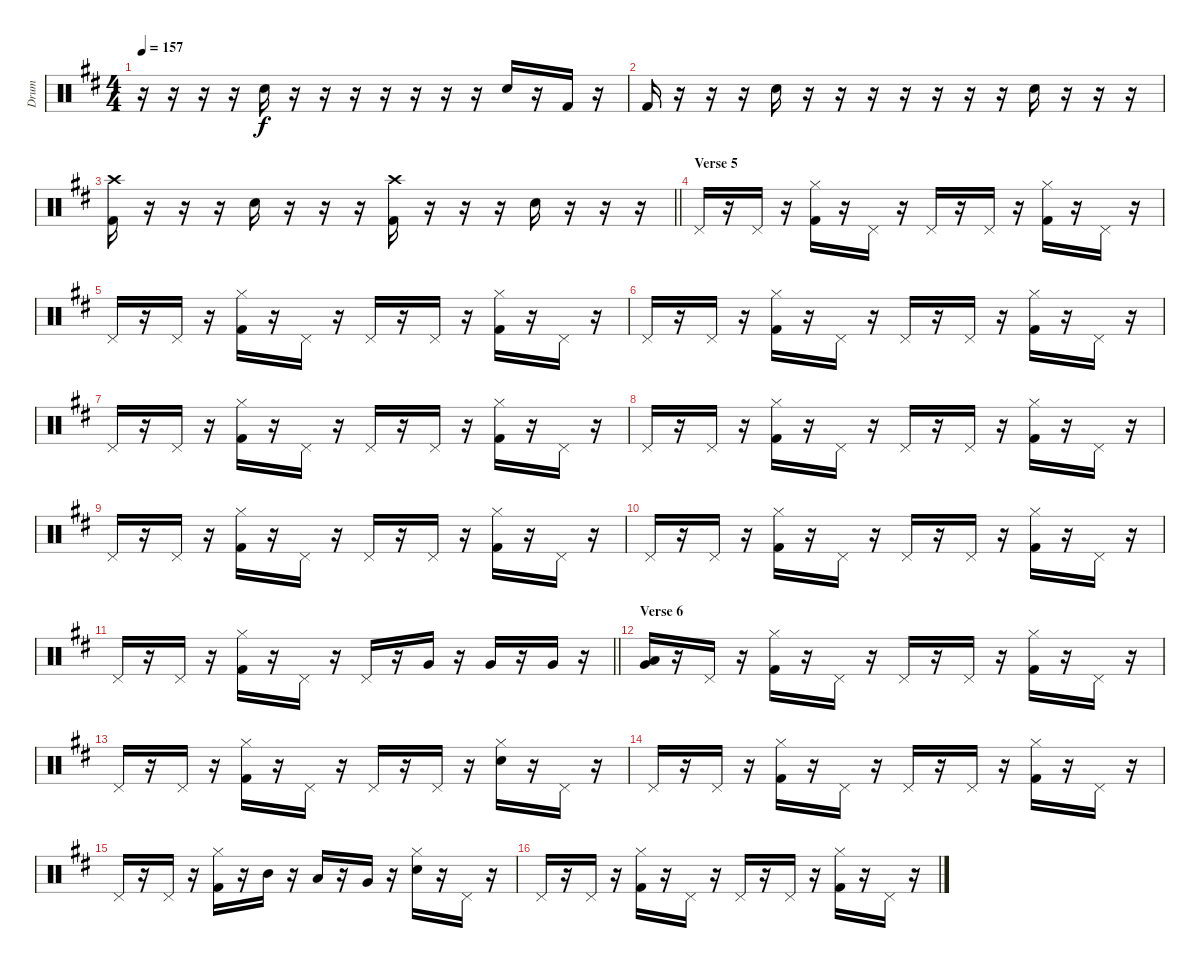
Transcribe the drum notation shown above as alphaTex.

\track ("Drum" "Drum") {instrument percussion}
\staff {score}
\articulation defaults
\ts (4 4)
\tempo 157
\clef neutral
\ks d
r.16{dy f} r.16 r.16 r.16 "Electric Snare (hit)".16 r.16 r.16 r.16 r.16 r.16 r.16 r.16 "Electric Snare (hit)".16 r.16 "Kick (hit) 2".16 r.16 |
"Kick (hit) 2".16 r.16 r.16 r.16 "Electric Snare (hit)".16 r.16 r.16 r.16 r.16 r.16 r.16 r.16 "Electric Snare (hit)".16 r.16 r.16 r.16 |
\barLineRight lightlight
("Kick (hit) 2" "Crash high (hit)").16 r.16 r.16 r.16 "Electric Snare (hit)".16 r.16 r.16 r.16 ("Kick (hit) 2" "Crash high (hit)").16 r.16 r.16 r.16 "Electric Snare (hit)".16 r.16 r.16 r.16 |
\section ("" "Verse 5")
"Pedal Hi-Hat (hit)".16 r.16 "Pedal Hi-Hat (hit)".16 r.16 ("Hi-Hat (closed)" "Kick (hit) 2").16 r.16 "Pedal Hi-Hat (hit)".16 r.16 "Pedal Hi-Hat (hit)".16 r.16 "Pedal Hi-Hat (hit)".16 r.16 ("Hi-Hat (closed)" "Kick (hit) 2").16 r.16 "Pedal Hi-Hat (hit)".16 r.16 |
"Pedal Hi-Hat (hit)".16 r.16 "Pedal Hi-Hat (hit)".16 r.16 ("Hi-Hat (closed)" "Kick (hit) 2").16 r.16 "Pedal Hi-Hat (hit)".16 r.16 "Pedal Hi-Hat (hit)".16 r.16 "Pedal Hi-Hat (hit)".16 r.16 ("Hi-Hat (closed)" "Kick (hit) 2").16 r.16 "Pedal Hi-Hat (hit)".16 r.16 |
"Pedal Hi-Hat (hit)".16 r.16 "Pedal Hi-Hat (hit)".16 r.16 ("Hi-Hat (closed)" "Kick (hit) 2").16 r.16 "Pedal Hi-Hat (hit)".16 r.16 "Pedal Hi-Hat (hit)".16 r.16 "Pedal Hi-Hat (hit)".16 r.16 ("Hi-Hat (closed)" "Kick (hit) 2").16 r.16 "Pedal Hi-Hat (hit)".16 r.16 |
"Pedal Hi-Hat (hit)".16 r.16 "Pedal Hi-Hat (hit)".16 r.16 ("Hi-Hat (closed)" "Kick (hit) 2").16 r.16 "Pedal Hi-Hat (hit)".16 r.16 "Pedal Hi-Hat (hit)".16 r.16 "Pedal Hi-Hat (hit)".16 r.16 ("Hi-Hat (closed)" "Kick (hit) 2").16 r.16 "Pedal Hi-Hat (hit)".16 r.16 |
"Pedal Hi-Hat (hit)".16 r.16 "Pedal Hi-Hat (hit)".16 r.16 ("Hi-Hat (closed)" "Kick (hit) 2").16 r.16 "Pedal Hi-Hat (hit)".16 r.16 "Pedal Hi-Hat (hit)".16 r.16 "Pedal Hi-Hat (hit)".16 r.16 ("Hi-Hat (closed)" "Kick (hit) 2").16 r.16 "Pedal Hi-Hat (hit)".16 r.16 |
"Pedal Hi-Hat (hit)".16 r.16 "Pedal Hi-Hat (hit)".16 r.16 ("Hi-Hat (closed)" "Kick (hit) 2").16 r.16 "Pedal Hi-Hat (hit)".16 r.16 "Pedal Hi-Hat (hit)".16 r.16 "Pedal Hi-Hat (hit)".16 r.16 ("Hi-Hat (closed)" "Kick (hit) 2").16 r.16 "Pedal Hi-Hat (hit)".16 r.16 |
"Pedal Hi-Hat (hit)".16 r.16 "Pedal Hi-Hat (hit)".16 r.16 ("Hi-Hat (closed)" "Kick (hit) 2").16 r.16 "Pedal Hi-Hat (hit)".16 r.16 "Pedal Hi-Hat (hit)".16 r.16 "Pedal Hi-Hat (hit)".16 r.16 ("Hi-Hat (closed)" "Kick (hit) 2").16 r.16 "Pedal Hi-Hat (hit)".16 r.16 |
\barLineRight lightlight "Pedal Hi-Hat (hit)".16
r.16 "Pedal Hi-Hat (hit)".16 r.16 ("Hi-Hat (closed)" "Kick (hit) 2").16 r.16 "Pedal Hi-Hat (hit)".16 r.16 "Pedal Hi-Hat (hit)".16 r.16 "Very Low Tom (hit)".16 r.16 "Very Low Tom (hit)".16 r.16 "Very Low Tom (hit)".16 r.16 |
\section ("" "Verse 6")
("Very Low Tom (hit)" "Low Tom (hit)").16 r.16 "Pedal Hi-Hat (hit)".16 r.16 ("Hi-Hat (closed)" "Kick (hit) 2").16 r.16 "Pedal Hi-Hat (hit)".16 r.16 "Pedal Hi-Hat (hit)".16 r.16 "Pedal Hi-Hat (hit)".16 r.16 ("Hi-Hat (closed)" "Kick (hit) 2").16 r.16 "Pedal Hi-Hat (hit)".16 r.16 |
"Pedal Hi-Hat (hit)".16 r.16 "Pedal Hi-Hat (hit)".16 r.16 ("Hi-Hat (closed)" "Kick (hit) 2").16 r.16 "Pedal Hi-Hat (hit)".16 r.16 "Pedal Hi-Hat (hit)".16 r.16 "Pedal Hi-Hat (hit)".16 r.16 ("Hi-Hat (closed)" "Electric Snare (hit)").16 r.16 "Pedal Hi-Hat (hit)".16 r.16 |
"Pedal Hi-Hat (hit)".16 r.16 "Pedal Hi-Hat (hit)".16 r.16 ("Hi-Hat (closed)" "Kick (hit) 2").16 r.16 "Pedal Hi-Hat (hit)".16 r.16 "Pedal Hi-Hat (hit)".16 r.16 "Pedal Hi-Hat (hit)".16 r.16 ("Hi-Hat (closed)" "Kick (hit) 2").16 r.16 "Pedal Hi-Hat (hit)".16 r.16 |
"Pedal Hi-Hat (hit)".16 r.16 "Pedal Hi-Hat (hit)".16 r.16 ("Hi-Hat (closed)" "Kick (hit) 2").16 r.16 "Mid Tom (hit)".16 r.16 "Low Tom (hit)".16 r.16 "Very Low Tom (hit)".16 r.16 ("Hi-Hat (closed)" "Electric Snare (hit)").16 r.16 "Pedal Hi-Hat (hit)".16 r.16 |
"Pedal Hi-Hat (hit)".16 r.16 "Pedal Hi-Hat (hit)".16 r.16 ("Hi-Hat (closed)" "Kick (hit) 2").16 r.16 "Pedal Hi-Hat (hit)".16 r.16 "Pedal Hi-Hat (hit)".16 r.16 "Pedal Hi-Hat (hit)".16 r.16 ("Hi-Hat (closed)" "Kick (hit) 2").16 r.16 "Pedal Hi-Hat (hit)".16 r.16
